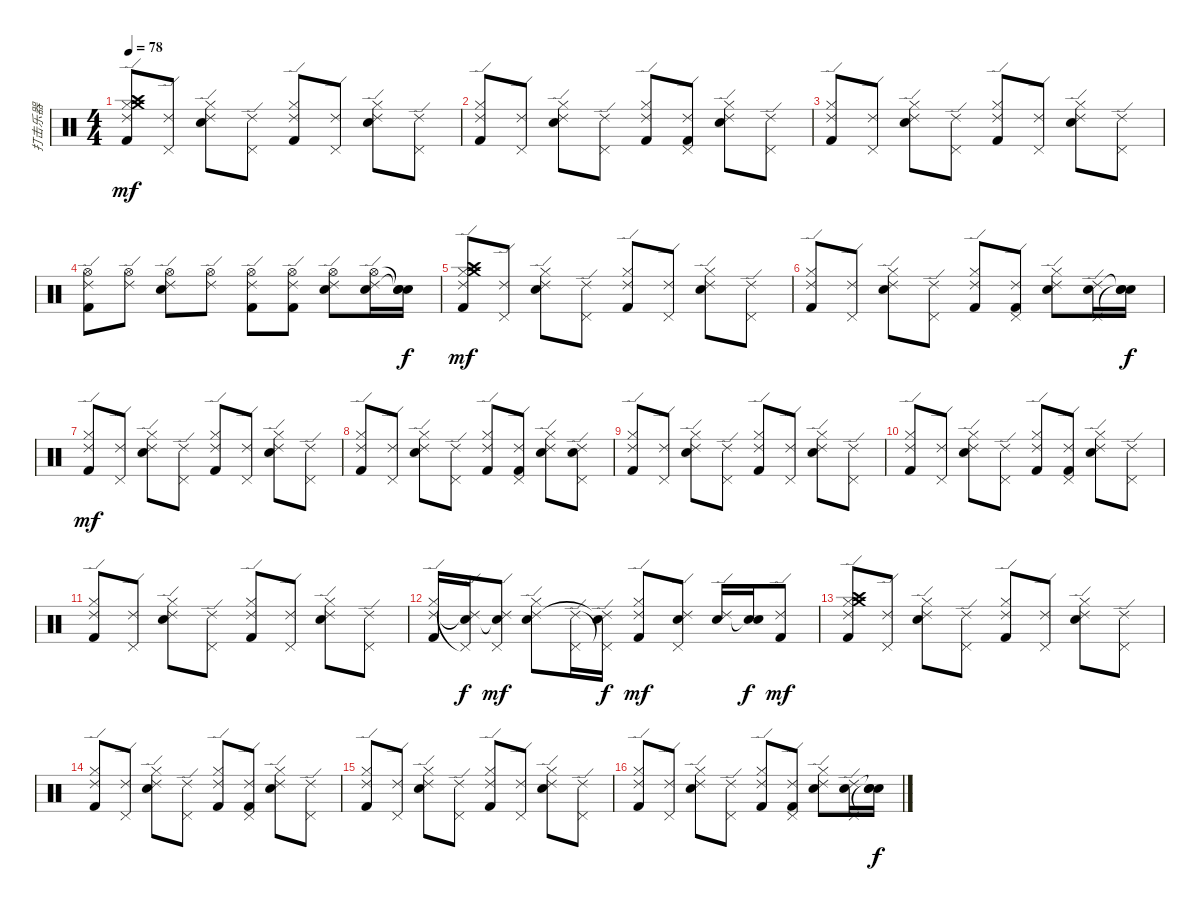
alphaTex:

\track ("打击乐器" "打击乐器") {instrument percussion}
\staff {score}
\articulation defaults
\ts (4 4)
\tempo 78
\clef neutral
\ks c
("Kick (hit) 2" "Hi-Hat (closed)" "Crash medium (hit)" "Crash high (hit)" "Ride (edge) 2").8{dy mf} ("Pedal Hi-Hat (hit)" "Ride (edge) 2").8 ("Electric Snare (hit)" "Hi-Hat (closed)" "Ride (edge) 2").8 ("Pedal Hi-Hat (hit)" "Ride (edge) 2").8 ("Kick (hit) 2" "Hi-Hat (closed)" "Ride (edge) 2").8 ("Pedal Hi-Hat (hit)" "Ride (edge) 2").8 ("Electric Snare (hit)" "Hi-Hat (closed)" "Ride (edge) 2").8 ("Pedal Hi-Hat (hit)" "Ride (edge) 2").8 |
("Kick (hit) 2" "Hi-Hat (closed)" "Ride (edge) 2").8 ("Pedal Hi-Hat (hit)" "Ride (edge) 2").8 ("Electric Snare (hit)" "Hi-Hat (closed)" "Ride (edge) 2").8 ("Pedal Hi-Hat (hit)" "Ride (edge) 2").8 ("Kick (hit) 2" "Hi-Hat (closed)" "Ride (edge) 2").8 ("Kick (hit) 2" "Pedal Hi-Hat (hit)" "Ride (edge) 2").8 ("Electric Snare (hit)" "Hi-Hat (closed)" "Ride (edge) 2").8 ("Pedal Hi-Hat (hit)" "Ride (edge) 2").8 |
("Kick (hit) 2" "Hi-Hat (closed)" "Ride (edge) 2").8 ("Pedal Hi-Hat (hit)" "Ride (edge) 2").8 ("Electric Snare (hit)" "Hi-Hat (closed)" "Ride (edge) 2").8 ("Pedal Hi-Hat (hit)" "Ride (edge) 2").8 ("Kick (hit) 2" "Hi-Hat (closed)" "Ride (edge) 2").8 ("Pedal Hi-Hat (hit)" "Ride (edge) 2").8 ("Electric Snare (hit)" "Hi-Hat (closed)" "Ride (edge) 2").8 ("Pedal Hi-Hat (hit)" "Ride (edge) 2").8 |
("Kick (hit) 2" "Hi-Hat (open)" "Ride (edge) 2").8 ("Hi-Hat (open)" "Ride (edge) 2").8 ("Electric Snare (hit)" "Hi-Hat (open)" "Ride (edge) 2").8 ("Hi-Hat (open)" "Ride (edge) 2").8 ("Kick (hit) 2" "Hi-Hat (open)" "Ride (edge) 2").8 ("Kick (hit) 2" "Hi-Hat (open)" "Ride (edge) 2").8 ("Electric Snare (hit)" "Hi-Hat (open)" "Ride (edge) 2").8 ("Electric Snare (hit)" "Hi-Hat (open)" "Ride (edge) 2").16 ("Electric Snare (hit)" "Snare (hit)"{t} "Snare (hit)"{t}).16{dy f} |
("Kick (hit) 2" "Hi-Hat (closed)" "Crash medium (hit)" "Crash high (hit)" "Ride (edge) 2").8{dy mf} ("Pedal Hi-Hat (hit)" "Ride (edge) 2").8 ("Electric Snare (hit)" "Hi-Hat (closed)" "Ride (edge) 2").8 ("Pedal Hi-Hat (hit)" "Ride (edge) 2").8 ("Kick (hit) 2" "Hi-Hat (closed)" "Ride (edge) 2").8 ("Pedal Hi-Hat (hit)" "Ride (edge) 2").8 ("Electric Snare (hit)" "Hi-Hat (closed)" "Ride (edge) 2").8 ("Pedal Hi-Hat (hit)" "Ride (edge) 2").8 |
("Kick (hit) 2" "Hi-Hat (closed)" "Ride (edge) 2").8 ("Pedal Hi-Hat (hit)" "Ride (edge) 2").8 ("Electric Snare (hit)" "Hi-Hat (closed)" "Ride (edge) 2").8 ("Pedal Hi-Hat (hit)" "Ride (edge) 2").8 ("Kick (hit) 2" "Hi-Hat (closed)" "Ride (edge) 2").8 ("Kick (hit) 2" "Pedal Hi-Hat (hit)" "Ride (edge) 2").8 ("Electric Snare (hit)" "Hi-Hat (closed)" "Ride (edge) 2").8 ("Electric Snare (hit)" "Pedal Hi-Hat (hit)" "Ride (edge) 2").16 ("Electric Snare (hit)" "Snare (hit)"{t} "Snare (hit)"{t}).16{dy f} |
("Kick (hit) 2" "Hi-Hat (closed)" "Ride (edge) 2").8{dy mf} ("Pedal Hi-Hat (hit)" "Ride (edge) 2").8 ("Electric Snare (hit)" "Hi-Hat (closed)" "Ride (edge) 2").8 ("Pedal Hi-Hat (hit)" "Ride (edge) 2").8 ("Kick (hit) 2" "Hi-Hat (closed)" "Ride (edge) 2").8 ("Pedal Hi-Hat (hit)" "Ride (edge) 2").8 ("Electric Snare (hit)" "Hi-Hat (closed)" "Ride (edge) 2").8 ("Pedal Hi-Hat (hit)" "Ride (edge) 2").8 |
("Kick (hit) 2" "Hi-Hat (closed)" "Ride (edge) 2").8 ("Pedal Hi-Hat (hit)" "Ride (edge) 2").8 ("Electric Snare (hit)" "Hi-Hat (closed)" "Ride (edge) 2").8 ("Pedal Hi-Hat (hit)" "Ride (edge) 2").8 ("Kick (hit) 2" "Hi-Hat (closed)" "Ride (edge) 2").8 ("Kick (hit) 2" "Pedal Hi-Hat (hit)" "Ride (edge) 2").8 ("Electric Snare (hit)" "Hi-Hat (closed)" "Ride (edge) 2").8 ("Electric Snare (hit)" "Pedal Hi-Hat (hit)" "Ride (edge) 2").8 |
("Kick (hit) 2" "Hi-Hat (closed)" "Ride (edge) 2").8 ("Pedal Hi-Hat (hit)" "Ride (edge) 2").8 ("Electric Snare (hit)" "Hi-Hat (closed)" "Ride (edge) 2").8 ("Pedal Hi-Hat (hit)" "Ride (edge) 2").8 ("Kick (hit) 2" "Hi-Hat (closed)" "Ride (edge) 2").8 ("Pedal Hi-Hat (hit)" "Ride (edge) 2").8 ("Electric Snare (hit)" "Hi-Hat (closed)" "Ride (edge) 2").8 ("Pedal Hi-Hat (hit)" "Ride (edge) 2").8 |
("Kick (hit) 2" "Hi-Hat (closed)" "Ride (edge) 2").8 ("Pedal Hi-Hat (hit)" "Ride (edge) 2").8 ("Electric Snare (hit)" "Hi-Hat (closed)" "Ride (edge) 2").8 ("Pedal Hi-Hat (hit)" "Ride (edge) 2").8 ("Kick (hit) 2" "Hi-Hat (closed)" "Ride (edge) 2").8 ("Kick (hit) 2" "Pedal Hi-Hat (hit)" "Ride (edge) 2").8 ("Electric Snare (hit)" "Hi-Hat (closed)" "Ride (edge) 2").8 ("Pedal Hi-Hat (hit)" "Ride (edge) 2").8 |
("Kick (hit) 2" "Hi-Hat (closed)" "Ride (edge) 2").8 ("Pedal Hi-Hat (hit)" "Ride (edge) 2").8 ("Electric Snare (hit)" "Hi-Hat (closed)" "Ride (edge) 2").8 ("Pedal Hi-Hat (hit)" "Ride (edge) 2").8 ("Kick (hit) 2" "Hi-Hat (closed)" "Ride (edge) 2").8 ("Pedal Hi-Hat (hit)" "Ride (edge) 2").8 ("Electric Snare (hit)" "Hi-Hat (closed)" "Ride (edge) 2").8 ("Pedal Hi-Hat (hit)" "Ride (edge) 2").8 |
("Kick (hit) 2" "Hi-Hat (closed)" "Ride (edge) 2").16 ("Electric Snare (hit)" "Pedal Hi-Hat (hit)"{t} "Ride (edge) 2"{t}).16{dy f} ("Electric Snare (hit)"{t} "Pedal Hi-Hat (hit)" "Ride (edge) 2").8{dy mf} ("Electric Snare (hit)" "Hi-Hat (closed)" "Ride (edge) 2").8 ("Pedal Hi-Hat (hit)" "Ride (edge) 2").16 ("Electric Snare (hit)" "Pedal Hi-Hat (hit)"{t} "Ride (edge) 2"{t}).16{dy f} ("Kick (hit) 2" "Hi-Hat (closed)" "Ride (edge) 2").8{dy mf} ("Electric Snare (hit)" "Pedal Hi-Hat (hit)" "Ride (edge) 2").8 ("Electric Snare (hit)" "Ride (edge) 2").16 ("Electric Snare (hit)" "Snare (hit)"{t}).16{dy f} ("Kick (hit) 2" "Ride (edge) 2").8{dy mf} |
("Kick (hit) 2" "Hi-Hat (closed)" "Crash medium (hit)" "Crash high (hit)" "Ride (edge) 2").8 ("Pedal Hi-Hat (hit)" "Ride (edge) 2").8 ("Electric Snare (hit)" "Hi-Hat (closed)" "Ride (edge) 2").8 ("Pedal Hi-Hat (hit)" "Ride (edge) 2").8 ("Kick (hit) 2" "Hi-Hat (closed)" "Ride (edge) 2").8 ("Pedal Hi-Hat (hit)" "Ride (edge) 2").8 ("Electric Snare (hit)" "Hi-Hat (closed)" "Ride (edge) 2").8 ("Pedal Hi-Hat (hit)" "Ride (edge) 2").8 |
("Kick (hit) 2" "Hi-Hat (closed)" "Ride (edge) 2").8 ("Pedal Hi-Hat (hit)" "Ride (edge) 2").8 ("Electric Snare (hit)" "Hi-Hat (closed)" "Ride (edge) 2").8 ("Pedal Hi-Hat (hit)" "Ride (edge) 2").8 ("Kick (hit) 2" "Hi-Hat (closed)" "Ride (edge) 2").8 ("Kick (hit) 2" "Pedal Hi-Hat (hit)" "Ride (edge) 2").8 ("Electric Snare (hit)" "Hi-Hat (closed)" "Ride (edge) 2").8 ("Pedal Hi-Hat (hit)" "Ride (edge) 2").8 |
("Kick (hit) 2" "Hi-Hat (closed)" "Ride (edge) 2").8 ("Pedal Hi-Hat (hit)" "Ride (edge) 2").8 ("Electric Snare (hit)" "Hi-Hat (closed)" "Ride (edge) 2").8 ("Pedal Hi-Hat (hit)" "Ride (edge) 2").8 ("Kick (hit) 2" "Hi-Hat (closed)" "Ride (edge) 2").8 ("Pedal Hi-Hat (hit)" "Ride (edge) 2").8 ("Electric Snare (hit)" "Hi-Hat (closed)" "Ride (edge) 2").8 ("Pedal Hi-Hat (hit)" "Ride (edge) 2").8 |
("Kick (hit) 2" "Hi-Hat (closed)" "Ride (edge) 2").8 ("Pedal Hi-Hat (hit)" "Ride (edge) 2").8 ("Electric Snare (hit)" "Hi-Hat (closed)" "Ride (edge) 2").8 ("Pedal Hi-Hat (hit)" "Ride (edge) 2").8 ("Kick (hit) 2" "Hi-Hat (closed)" "Ride (edge) 2").8 ("Kick (hit) 2" "Pedal Hi-Hat (hit)" "Ride (edge) 2").8 ("Electric Snare (hit)" "Hi-Hat (closed)" "Ride (edge) 2").8 ("Electric Snare (hit)" "Pedal Hi-Hat (hit)" "Ride (edge) 2").16 ("Electric Snare (hit)" "Snare (hit)"{t} "Snare (hit)"{t}).16{dy f}
